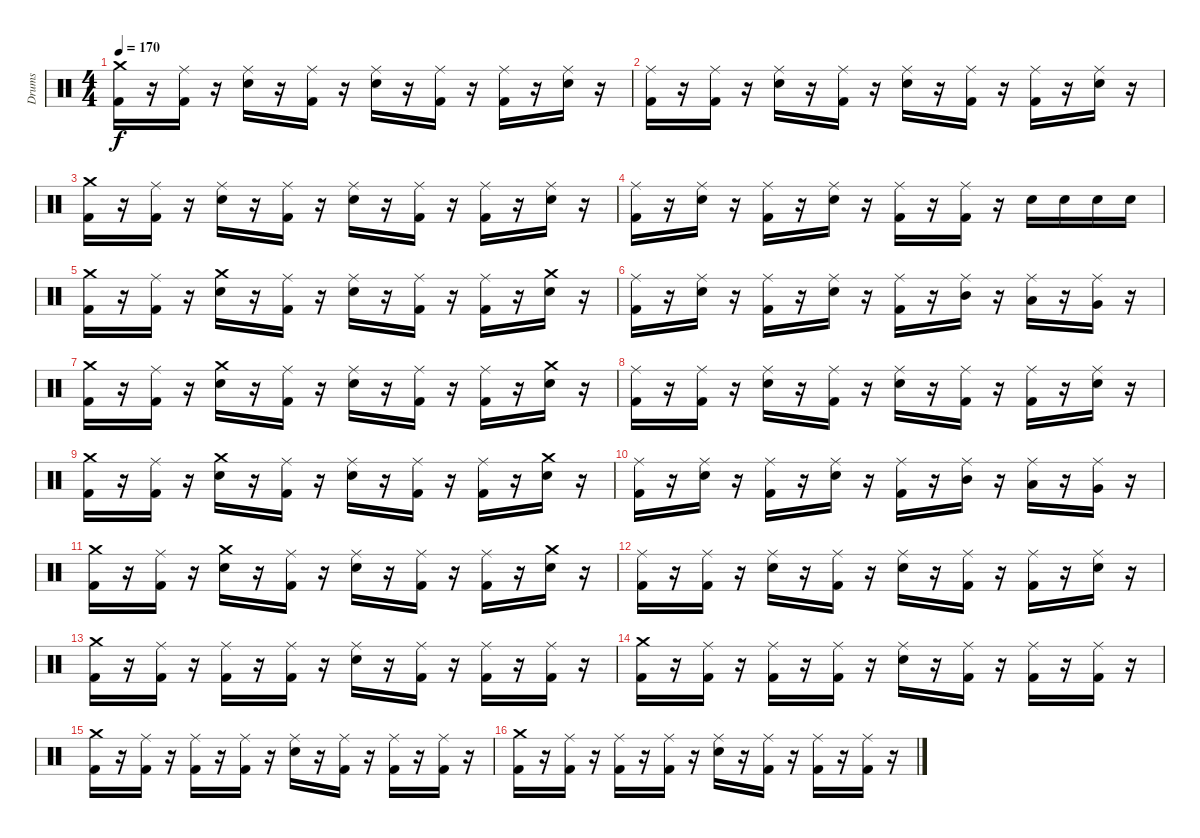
\track ("Drums" "Drums") {instrument percussion}
\staff {score}
\articulation defaults
\ts (4 4)
\tempo 170
\clef neutral
\ks c
("Crash medium (hit)" "Kick (hit) 2").16{dy f} r.16 ("Ride (middle)" "Kick (hit) 2").16 r.16 ("Ride (middle)" "Snare (hit) 2").16 r.16 ("Ride (middle)" "Kick (hit) 2").16 r.16 ("Ride (middle)" "Snare (hit) 2").16 r.16 ("Ride (middle)" "Kick (hit) 2").16 r.16 ("Ride (middle)" "Kick (hit) 2").16 r.16 ("Ride (middle)" "Snare (hit) 2").16 r.16 |
("Ride (middle)" "Kick (hit) 2").16 r.16 ("Ride (middle)" "Kick (hit) 2").16 r.16 ("Ride (middle)" "Snare (hit) 2").16 r.16 ("Ride (middle)" "Kick (hit) 2").16 r.16 ("Ride (middle)" "Snare (hit) 2").16 r.16 ("Ride (middle)" "Kick (hit) 2").16 r.16 ("Ride (middle)" "Kick (hit) 2").16 r.16 ("Ride (middle)" "Snare (hit) 2").16 r.16 |
("Crash medium (hit)" "Kick (hit) 2").16 r.16 ("Ride (middle)" "Kick (hit) 2").16 r.16 ("Ride (middle)" "Snare (hit) 2").16 r.16 ("Ride (middle)" "Kick (hit) 2").16 r.16 ("Ride (middle)" "Snare (hit) 2").16 r.16 ("Ride (middle)" "Kick (hit) 2").16 r.16 ("Ride (middle)" "Kick (hit) 2").16 r.16 ("Ride (middle)" "Snare (hit) 2").16 r.16 |
("Ride (middle)" "Kick (hit) 2").16 r.16 ("Ride (middle)" "Snare (hit) 2").16 r.16 ("Ride (middle)" "Kick (hit) 2").16 r.16 ("Ride (middle)" "Snare (hit) 2").16 r.16 ("Ride (middle)" "Kick (hit) 2").16 r.16 ("Ride (middle)" "Kick (hit) 2").16 r.16 "Snare (hit) 2".16 "Snare (hit) 2".16 "Snare (hit) 2".16 "Snare (hit) 2".16 |
("Crash medium (hit)" "Kick (hit) 2").16 r.16 ("Ride (middle)" "Kick (hit) 2").16 r.16 ("Crash medium (hit)" "Snare (hit) 2").16 r.16 ("Ride (middle)" "Kick (hit) 2").16 r.16 ("Ride (middle)" "Snare (hit) 2").16 r.16 ("Ride (middle)" "Kick (hit) 2").16 r.16 ("Ride (middle)" "Kick (hit) 2").16 r.16 ("Crash medium (hit)" "Snare (hit) 2").16 r.16 |
("Ride (middle)" "Kick (hit) 2").16 r.16 ("Ride (middle)" "Snare (hit) 2").16 r.16 ("Ride (middle)" "Kick (hit) 2").16 r.16 ("Ride (middle)" "Snare (hit) 2").16 r.16 ("Ride (middle)" "Kick (hit) 2").16 r.16 ("Ride (middle)" "Mid Tom (hit)").16 r.16 ("Ride (middle)" "Low Tom (hit)").16 r.16 ("Ride (middle)" "Very Low Tom (hit)").16 r.16 |
("Crash medium (hit)" "Kick (hit) 2").16 r.16 ("Ride (middle)" "Kick (hit) 2").16 r.16 ("Crash medium (hit)" "Snare (hit) 2").16 r.16 ("Ride (middle)" "Kick (hit) 2").16 r.16 ("Ride (middle)" "Snare (hit) 2").16 r.16 ("Ride (middle)" "Kick (hit) 2").16 r.16 ("Ride (middle)" "Kick (hit) 2").16 r.16 ("Crash medium (hit)" "Snare (hit) 2").16 r.16 |
("Ride (middle)" "Kick (hit) 2").16 r.16 ("Ride (middle)" "Kick (hit) 2").16 r.16 ("Ride (middle)" "Snare (hit) 2").16 r.16 ("Ride (middle)" "Kick (hit) 2").16 r.16 ("Ride (middle)" "Snare (hit) 2").16 r.16 ("Ride (middle)" "Kick (hit) 2").16 r.16 ("Ride (middle)" "Kick (hit) 2").16 r.16 ("Ride (middle)" "Snare (hit) 2").16 r.16 |
("Crash medium (hit)" "Kick (hit) 2").16 r.16 ("Ride (middle)" "Kick (hit) 2").16 r.16 ("Crash medium (hit)" "Snare (hit) 2").16 r.16 ("Ride (middle)" "Kick (hit) 2").16 r.16 ("Ride (middle)" "Snare (hit) 2").16 r.16 ("Ride (middle)" "Kick (hit) 2").16 r.16 ("Ride (middle)" "Kick (hit) 2").16 r.16 ("Crash medium (hit)" "Snare (hit) 2").16 r.16 |
("Ride (middle)" "Kick (hit) 2").16 r.16 ("Ride (middle)" "Snare (hit) 2").16 r.16 ("Ride (middle)" "Kick (hit) 2").16 r.16 ("Ride (middle)" "Snare (hit) 2").16 r.16 ("Ride (middle)" "Kick (hit) 2").16 r.16 ("Ride (middle)" "Mid Tom (hit)").16 r.16 ("Ride (middle)" "Low Tom (hit)").16 r.16 ("Ride (middle)" "Very Low Tom (hit)").16 r.16 |
("Crash medium (hit)" "Kick (hit) 2").16 r.16 ("Ride (middle)" "Kick (hit) 2").16 r.16 ("Crash medium (hit)" "Snare (hit) 2").16 r.16 ("Ride (middle)" "Kick (hit) 2").16 r.16 ("Ride (middle)" "Snare (hit) 2").16 r.16 ("Ride (middle)" "Kick (hit) 2").16 r.16 ("Ride (middle)" "Kick (hit) 2").16 r.16 ("Crash medium (hit)" "Snare (hit) 2").16 r.16 |
("Ride (middle)" "Kick (hit) 2").16 r.16 ("Ride (middle)" "Kick (hit) 2").16 r.16 ("Ride (middle)" "Snare (hit) 2").16 r.16 ("Ride (middle)" "Kick (hit) 2").16 r.16 ("Ride (middle)" "Snare (hit) 2").16 r.16 ("Ride (middle)" "Kick (hit) 2").16 r.16 ("Ride (middle)" "Kick (hit) 2").16 r.16 ("Ride (middle)" "Snare (hit) 2").16 r.16 |
("Crash medium (hit)" "Kick (hit) 2").16 r.16 ("Ride (middle)" "Kick (hit) 2").16 r.16 ("Ride (middle)" "Kick (hit) 2").16 r.16 ("Ride (middle)" "Kick (hit) 2").16 r.16 ("Ride (middle)" "Snare (hit) 2").16 r.16 ("Ride (middle)" "Kick (hit) 2").16 r.16 ("Ride (middle)" "Kick (hit) 2").16 r.16 ("Ride (middle)" "Kick (hit) 2").16 r.16 |
("Crash medium (hit)" "Kick (hit) 2").16 r.16 ("Ride (middle)" "Kick (hit) 2").16 r.16 ("Ride (middle)" "Kick (hit) 2").16 r.16 ("Ride (middle)" "Kick (hit) 2").16 r.16 ("Ride (middle)" "Snare (hit) 2").16 r.16 ("Ride (middle)" "Kick (hit) 2").16 r.16 ("Ride (middle)" "Kick (hit) 2").16 r.16 ("Ride (middle)" "Kick (hit) 2").16 r.16 |
("Crash medium (hit)" "Kick (hit) 2").16 r.16 ("Ride (middle)" "Kick (hit) 2").16 r.16 ("Ride (middle)" "Kick (hit) 2").16 r.16 ("Ride (middle)" "Kick (hit) 2").16 r.16 ("Ride (middle)" "Snare (hit) 2").16 r.16 ("Ride (middle)" "Kick (hit) 2").16 r.16 ("Ride (middle)" "Kick (hit) 2").16 r.16 ("Ride (middle)" "Kick (hit) 2").16 r.16 |
("Crash medium (hit)" "Kick (hit) 2").16 r.16 ("Ride (middle)" "Kick (hit) 2").16 r.16 ("Ride (middle)" "Kick (hit) 2").16 r.16 ("Ride (middle)" "Kick (hit) 2").16 r.16 ("Ride (middle)" "Snare (hit) 2").16 r.16 ("Ride (middle)" "Kick (hit) 2").16 r.16 ("Ride (middle)" "Kick (hit) 2").16 r.16 ("Ride (middle)" "Kick (hit) 2").16 r.16
